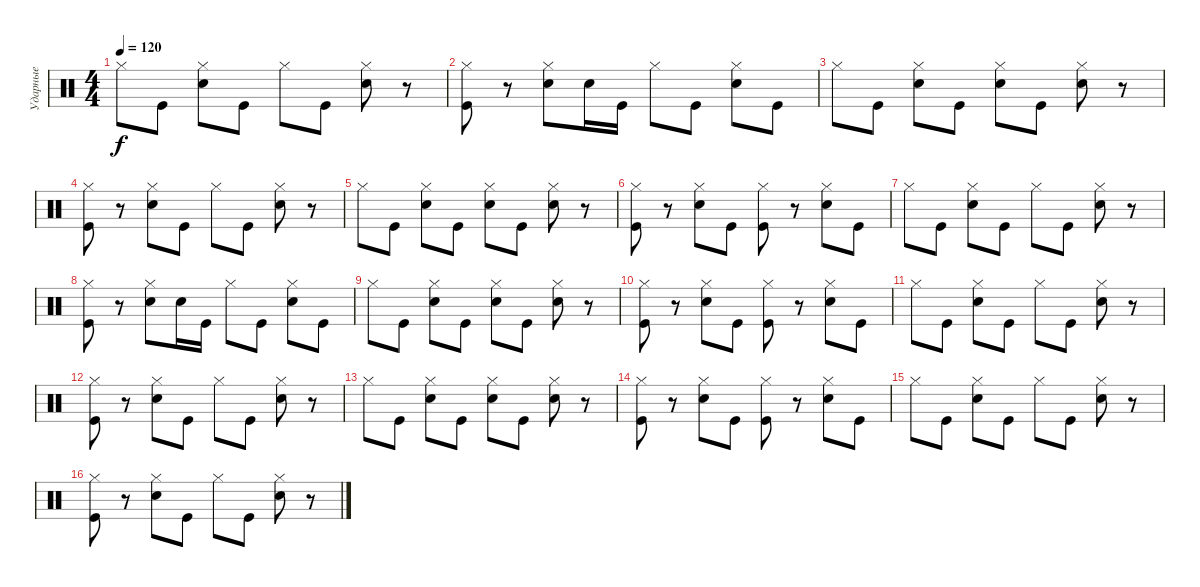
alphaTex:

\track ("Ударные" "Ударные") {instrument percussion}
\staff {score}
\articulation defaults
\ts (4 4)
\tempo 120
\clef neutral
\ks c "Hi-Hat (closed)".8{dy f} "Kick (hit)".8
("Hi-Hat (closed)" "Snare (hit) 2").8 "Kick (hit)".8 "Hi-Hat (closed)".8 "Kick (hit)".8 ("Hi-Hat (closed)" "Snare (hit) 2").8 r.8 |
("Hi-Hat (closed)" "Kick (hit)").8 r.8 ("Hi-Hat (closed)" "Snare (hit) 2").8 "Snare (hit) 2".16 "Kick (hit)".16 "Hi-Hat (closed)".8 "Kick (hit)".8 ("Hi-Hat (closed)" "Snare (hit) 2").8 "Kick (hit)".8 |
"Hi-Hat (closed)".8 "Kick (hit)".8 ("Hi-Hat (closed)" "Snare (hit) 2").8 "Kick (hit)".8 ("Hi-Hat (closed)" "Snare (hit) 2").8 "Kick (hit)".8 ("Hi-Hat (closed)" "Snare (hit) 2").8 r.8 |
("Hi-Hat (closed)" "Kick (hit)").8 r.8 ("Hi-Hat (closed)" "Snare (hit) 2").8 "Kick (hit)".8 "Hi-Hat (closed)".8 "Kick (hit)".8 ("Hi-Hat (closed)" "Snare (hit) 2").8 r.8 |
"Hi-Hat (closed)".8 "Kick (hit)".8 ("Hi-Hat (closed)" "Snare (hit) 2").8 "Kick (hit)".8 ("Hi-Hat (closed)" "Snare (hit) 2").8 "Kick (hit)".8 ("Hi-Hat (closed)" "Snare (hit) 2").8 r.8 |
("Hi-Hat (closed)" "Kick (hit)").8 r.8 ("Hi-Hat (closed)" "Snare (hit) 2").8 "Kick (hit)".8 ("Hi-Hat (closed)" "Kick (hit)").8 r.8 ("Hi-Hat (closed)" "Snare (hit) 2").8 "Kick (hit)".8 |
"Hi-Hat (closed)".8 "Kick (hit)".8 ("Hi-Hat (closed)" "Snare (hit) 2").8 "Kick (hit)".8 "Hi-Hat (closed)".8 "Kick (hit)".8 ("Hi-Hat (closed)" "Snare (hit) 2").8 r.8 |
("Hi-Hat (closed)" "Kick (hit)").8 r.8 ("Hi-Hat (closed)" "Snare (hit) 2").8 "Snare (hit) 2".16 "Kick (hit)".16 "Hi-Hat (closed)".8 "Kick (hit)".8 ("Hi-Hat (closed)" "Snare (hit) 2").8 "Kick (hit)".8 |
"Hi-Hat (closed)".8 "Kick (hit)".8 ("Hi-Hat (closed)" "Snare (hit) 2").8 "Kick (hit)".8 ("Hi-Hat (closed)" "Snare (hit) 2").8 "Kick (hit)".8 ("Hi-Hat (closed)" "Snare (hit) 2").8 r.8 |
("Hi-Hat (closed)" "Kick (hit)").8 r.8 ("Hi-Hat (closed)" "Snare (hit) 2").8 "Kick (hit)".8 ("Hi-Hat (closed)" "Kick (hit)").8 r.8 ("Hi-Hat (closed)" "Snare (hit) 2").8 "Kick (hit)".8 |
"Hi-Hat (closed)".8 "Kick (hit)".8 ("Hi-Hat (closed)" "Snare (hit) 2").8 "Kick (hit)".8 "Hi-Hat (closed)".8 "Kick (hit)".8 ("Hi-Hat (closed)" "Snare (hit) 2").8 r.8 |
("Hi-Hat (closed)" "Kick (hit)").8 r.8 ("Hi-Hat (closed)" "Snare (hit) 2").8 "Kick (hit)".8 "Hi-Hat (closed)".8 "Kick (hit)".8 ("Hi-Hat (closed)" "Snare (hit) 2").8 r.8 |
"Hi-Hat (closed)".8 "Kick (hit)".8 ("Hi-Hat (closed)" "Snare (hit) 2").8 "Kick (hit)".8 ("Hi-Hat (closed)" "Snare (hit) 2").8 "Kick (hit)".8 ("Hi-Hat (closed)" "Snare (hit) 2").8 r.8 |
("Hi-Hat (closed)" "Kick (hit)").8 r.8 ("Hi-Hat (closed)" "Snare (hit) 2").8 "Kick (hit)".8 ("Hi-Hat (closed)" "Kick (hit)").8 r.8 ("Hi-Hat (closed)" "Snare (hit) 2").8 "Kick (hit)".8 |
"Hi-Hat (closed)".8 "Kick (hit)".8 ("Hi-Hat (closed)" "Snare (hit) 2").8 "Kick (hit)".8 "Hi-Hat (closed)".8 "Kick (hit)".8 ("Hi-Hat (closed)" "Snare (hit) 2").8 r.8 |
("Hi-Hat (closed)" "Kick (hit)").8 r.8 ("Hi-Hat (closed)" "Snare (hit) 2").8 "Kick (hit)".8 "Hi-Hat (closed)".8 "Kick (hit)".8 ("Hi-Hat (closed)" "Snare (hit) 2").8 r.8
